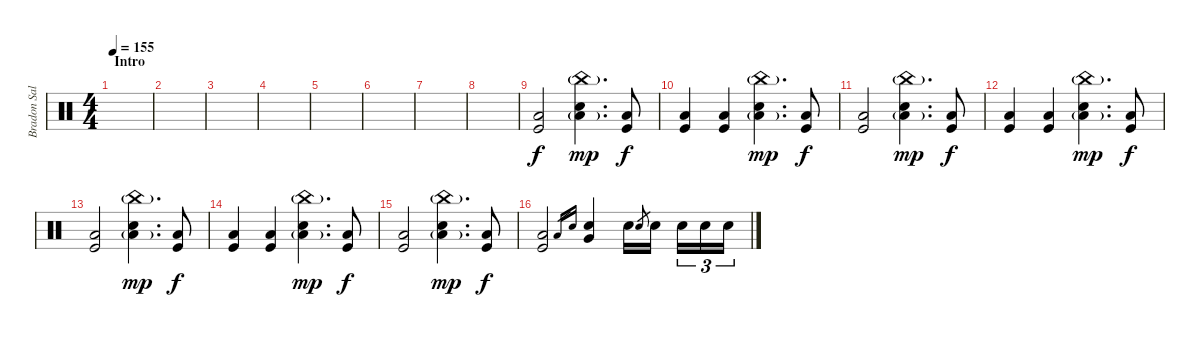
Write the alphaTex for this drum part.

\track ("Bradon Saller" "Bradon Sal") {instrument percussion}
\staff {score}
\articulation defaults
\ts (4 4)
\section ("" "Intro")
\tempo 155
\clef neutral
\ks c
|
|
|
|
|
|
|
|
("Low Floor Tom (hit)" "Kick (hit)").2 ("China (hit)"{g} "Low Floor Tom (hit)"{g} "Electric Snare (hit)").4{d dy mp} ("Low Floor Tom (hit)" "Kick (hit)").8{dy f} |
("Low Floor Tom (hit)" "Kick (hit)").4 ("Low Floor Tom (hit)" "Kick (hit)").4 ("China (hit)"{g} "Low Floor Tom (hit)"{g} "Electric Snare (hit)").4{d dy mp} ("Low Floor Tom (hit)" "Kick (hit)").8{dy f} |
("Low Floor Tom (hit)" "Kick (hit)").2 ("China (hit)"{g} "Low Floor Tom (hit)"{g} "Electric Snare (hit)").4{d dy mp} ("Low Floor Tom (hit)" "Kick (hit)").8{dy f} |
("Low Floor Tom (hit)" "Kick (hit)").4 ("Low Floor Tom (hit)" "Kick (hit)").4 ("China (hit)"{g} "Low Floor Tom (hit)"{g} "Electric Snare (hit)").4{d dy mp} ("Low Floor Tom (hit)" "Kick (hit)").8{dy f} |
("Low Floor Tom (hit)" "Kick (hit)").2 ("China (hit)"{g} "Low Floor Tom (hit)"{g} "Electric Snare (hit)").4{d dy mp} ("Low Floor Tom (hit)" "Kick (hit)").8{dy f} |
("Low Floor Tom (hit)" "Kick (hit)").4 ("Low Floor Tom (hit)" "Kick (hit)").4 ("China (hit)"{g} "Low Floor Tom (hit)"{g} "Electric Snare (hit)").4{d dy mp} ("Low Floor Tom (hit)" "Kick (hit)").8{dy f} |
("Low Floor Tom (hit)" "Kick (hit)").2 ("China (hit)"{g} "Low Floor Tom (hit)"{g} "Electric Snare (hit)").4{d dy mp} ("Low Floor Tom (hit)" "Kick (hit)").8{dy f} |
("Low Floor Tom (hit)" "Kick (hit)").2 "Low Floor Tom (hit)".16{gr} "Electric Snare (hit)".16{gr} ("Very Low Tom (hit)" "Electric Snare (hit)").4 "Electric Snare (hit)".16 "Electric Snare (hit)".8{gr} "Electric Snare (hit)".16{beam splitsecondary} "Electric Snare (hit)".16{tu (3 2)} "Electric Snare (hit)".16{tu (3 2)} "Electric Snare (hit)".16{tu (3 2)}
